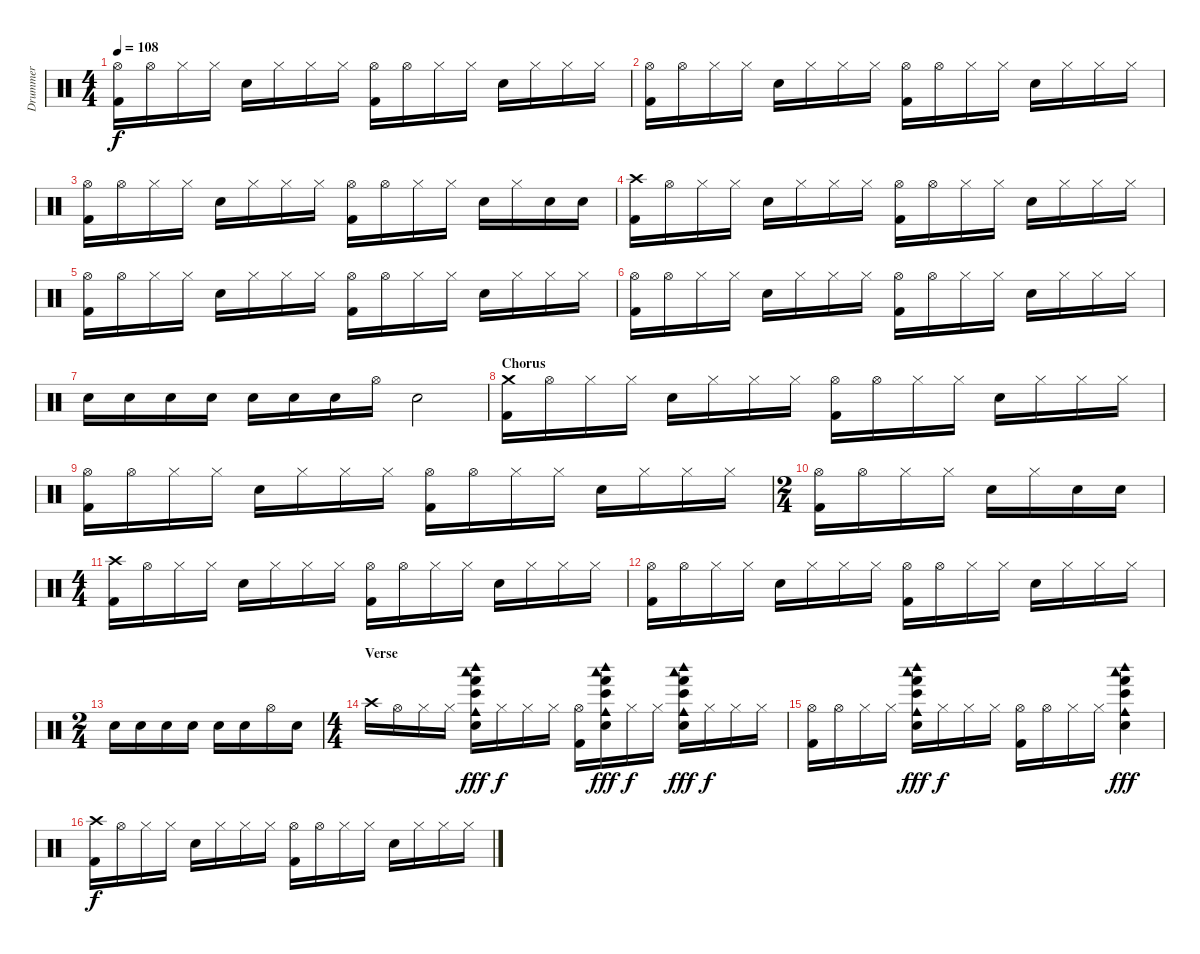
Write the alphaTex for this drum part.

\track ("Drummer" "Drummer") {instrument percussion}
\staff {score}
\articulation defaults
\ts (4 4)
\tempo 108
\clef neutral
\ks c
("Hi-Hat (open)" "Kick (hit) 2").16{dy f} "Hi-Hat (open)".16 "Hi-Hat (closed)".16 "Hi-Hat (closed)".16 "Electric Snare (hit)".16 "Hi-Hat (closed)".16 "Hi-Hat (closed)".16 "Hi-Hat (closed)".16 ("Hi-Hat (open)" "Kick (hit) 2").16 "Hi-Hat (open)".16 "Hi-Hat (closed)".16 "Hi-Hat (closed)".16 "Electric Snare (hit)".16 "Hi-Hat (closed)".16 "Hi-Hat (closed)".16 "Hi-Hat (closed)".16 |
("Hi-Hat (open)" "Kick (hit) 2").16 "Hi-Hat (open)".16 "Hi-Hat (closed)".16 "Hi-Hat (closed)".16 "Electric Snare (hit)".16 "Hi-Hat (closed)".16 "Hi-Hat (closed)".16 "Hi-Hat (closed)".16 ("Hi-Hat (open)" "Kick (hit) 2").16 "Hi-Hat (open)".16 "Hi-Hat (closed)".16 "Hi-Hat (closed)".16 "Electric Snare (hit)".16 "Hi-Hat (closed)".16 "Hi-Hat (closed)".16 "Hi-Hat (closed)".16 |
("Hi-Hat (open)" "Kick (hit) 2").16 "Hi-Hat (open)".16 "Hi-Hat (closed)".16 "Hi-Hat (closed)".16 "Electric Snare (hit)".16 "Hi-Hat (closed)".16 "Hi-Hat (closed)".16 "Hi-Hat (closed)".16 ("Hi-Hat (open)" "Kick (hit) 2").16 "Hi-Hat (open)".16 "Hi-Hat (closed)".16 "Hi-Hat (closed)".16 "Electric Snare (hit)".16 "Hi-Hat (closed)".16 "Electric Snare (hit)".16 "Electric Snare (hit)".16 |
("Crash high (hit)" "Kick (hit) 2").16 "Hi-Hat (open)".16 "Hi-Hat (closed)".16 "Hi-Hat (closed)".16 "Electric Snare (hit)".16 "Hi-Hat (closed)".16 "Hi-Hat (closed)".16 "Hi-Hat (closed)".16 ("Hi-Hat (open)" "Kick (hit) 2").16 "Hi-Hat (open)".16 "Hi-Hat (closed)".16 "Hi-Hat (closed)".16 "Electric Snare (hit)".16 "Hi-Hat (closed)".16 "Hi-Hat (closed)".16 "Hi-Hat (closed)".16 |
("Hi-Hat (open)" "Kick (hit) 2").16 "Hi-Hat (open)".16 "Hi-Hat (closed)".16 "Hi-Hat (closed)".16 "Electric Snare (hit)".16 "Hi-Hat (closed)".16 "Hi-Hat (closed)".16 "Hi-Hat (closed)".16 ("Hi-Hat (open)" "Kick (hit) 2").16 "Hi-Hat (open)".16 "Hi-Hat (closed)".16 "Hi-Hat (closed)".16 "Electric Snare (hit)".16 "Hi-Hat (closed)".16 "Hi-Hat (closed)".16 "Hi-Hat (closed)".16 |
("Hi-Hat (open)" "Kick (hit) 2").16 "Hi-Hat (open)".16 "Hi-Hat (closed)".16 "Hi-Hat (closed)".16 "Electric Snare (hit)".16 "Hi-Hat (closed)".16 "Hi-Hat (closed)".16 "Hi-Hat (closed)".16 ("Hi-Hat (open)" "Kick (hit) 2").16 "Hi-Hat (open)".16 "Hi-Hat (closed)".16 "Hi-Hat (closed)".16 "Electric Snare (hit)".16 "Hi-Hat (closed)".16 "Hi-Hat (closed)".16 "Hi-Hat (closed)".16 |
"Electric Snare (hit)".16 "Electric Snare (hit)".16 "Electric Snare (hit)".16 "Electric Snare (hit)".16 "Electric Snare (hit)".16 "Electric Snare (hit)".16 "Electric Snare (hit)".16 "Hi-Hat (open)".16 "Electric Snare (hit)".2 |
\section ("" "Chorus")
("Crash medium (hit)" "Kick (hit) 2").16 "Hi-Hat (open)".16 "Hi-Hat (closed)".16 "Hi-Hat (closed)".16 "Electric Snare (hit)".16 "Hi-Hat (closed)".16 "Hi-Hat (closed)".16 "Hi-Hat (closed)".16 ("Hi-Hat (open)" "Kick (hit) 2").16 "Hi-Hat (open)".16 "Hi-Hat (closed)".16 "Hi-Hat (closed)".16 "Electric Snare (hit)".16 "Hi-Hat (closed)".16 "Hi-Hat (closed)".16 "Hi-Hat (closed)".16 |
("Hi-Hat (open)" "Kick (hit) 2").16 "Hi-Hat (open)".16 "Hi-Hat (closed)".16 "Hi-Hat (closed)".16 "Electric Snare (hit)".16 "Hi-Hat (closed)".16 "Hi-Hat (closed)".16 "Hi-Hat (closed)".16 ("Hi-Hat (open)" "Kick (hit) 2").16 "Hi-Hat (open)".16 "Hi-Hat (closed)".16 "Hi-Hat (closed)".16 "Electric Snare (hit)".16 "Hi-Hat (closed)".16 "Hi-Hat (closed)".16 "Hi-Hat (closed)".16 |
\ts (2 4)
("Hi-Hat (open)" "Kick (hit) 2").16 "Hi-Hat (open)".16 "Hi-Hat (closed)".16 "Hi-Hat (closed)".16 "Electric Snare (hit)".16 "Hi-Hat (closed)".16 "Electric Snare (hit)".16 "Electric Snare (hit)".16 |
\ts (4 4)
("Crash high (hit)" "Kick (hit) 2").16 "Hi-Hat (open)".16 "Hi-Hat (closed)".16 "Hi-Hat (closed)".16 "Electric Snare (hit)".16 "Hi-Hat (closed)".16 "Hi-Hat (closed)".16 "Hi-Hat (closed)".16 ("Hi-Hat (open)" "Kick (hit) 2").16 "Hi-Hat (open)".16 "Hi-Hat (closed)".16 "Hi-Hat (closed)".16 "Electric Snare (hit)".16 "Hi-Hat (closed)".16 "Hi-Hat (closed)".16 "Hi-Hat (closed)".16 |
("Hi-Hat (open)" "Kick (hit) 2").16 "Hi-Hat (open)".16 "Hi-Hat (closed)".16 "Hi-Hat (closed)".16 "Electric Snare (hit)".16 "Hi-Hat (closed)".16 "Hi-Hat (closed)".16 "Hi-Hat (closed)".16 ("Hi-Hat (open)" "Kick (hit) 2").16 "Hi-Hat (open)".16 "Hi-Hat (closed)".16 "Hi-Hat (closed)".16 "Electric Snare (hit)".16 "Hi-Hat (closed)".16 "Hi-Hat (closed)".16 "Hi-Hat (closed)".16 |
\ts (2 4)
"Electric Snare (hit)".16 "Electric Snare (hit)".16 "Electric Snare (hit)".16 "Electric Snare (hit)".16 "Electric Snare (hit)".16 "Electric Snare (hit)".16 "Hi-Hat (open)".16 "Electric Snare (hit)".16 |
\ts (4 4)
\section ("" "Verse")
"Crash high (hit)".16 "Hi-Hat (open)".16 "Hi-Hat (closed)".16 "Hi-Hat (closed)".16 ("Woodblock low (hit)" "Woodblock high (hit)" "Cowbell medium (hit)" "Electric Snare (hit)" "Hand (hit)" "Bongo High (hit)").16{dy fff} "Hi-Hat (closed)".16{dy f} "Hi-Hat (closed)".16 "Hi-Hat (closed)".16 ("Hi-Hat (open)" "Kick (hit) 2").16 ("Woodblock low (hit)" "Woodblock high (hit)" "Cowbell medium (hit)" "Electric Snare (hit)" "Hand (hit)" "Bongo High (hit)").16{dy fff} "Hi-Hat (closed)".16{dy f} "Hi-Hat (closed)".16 ("Woodblock low (hit)" "Woodblock high (hit)" "Cowbell medium (hit)" "Electric Snare (hit)" "Hand (hit)" "Bongo High (hit)").16{dy fff} "Hi-Hat (closed)".16{dy f} "Hi-Hat (closed)".16 "Hi-Hat (closed)".16 |
("Hi-Hat (open)" "Kick (hit) 2").16 "Hi-Hat (open)".16 "Hi-Hat (closed)".16 "Hi-Hat (closed)".16 ("Woodblock low (hit)" "Woodblock high (hit)" "Cowbell medium (hit)" "Electric Snare (hit)" "Hand (hit)" "Bongo High (hit)").16{dy fff} "Hi-Hat (closed)".16{dy f} "Hi-Hat (closed)".16 "Hi-Hat (closed)".16 ("Hi-Hat (open)" "Kick (hit) 2").16 "Hi-Hat (open)".16 "Hi-Hat (closed)".16 "Hi-Hat (closed)".16 ("Woodblock low (hit)" "Woodblock high (hit)" "Cowbell medium (hit)" "Electric Snare (hit)" "Hand (hit)" "Bongo High (hit)").4{dy fff} |
("Crash high (hit)" "Kick (hit) 2").16{dy f} "Hi-Hat (open)".16 "Hi-Hat (closed)".16 "Hi-Hat (closed)".16 "Electric Snare (hit)".16 "Hi-Hat (closed)".16 "Hi-Hat (closed)".16 "Hi-Hat (closed)".16 ("Hi-Hat (open)" "Kick (hit) 2").16 "Hi-Hat (open)".16 "Hi-Hat (closed)".16 "Hi-Hat (closed)".16 "Electric Snare (hit)".16 "Hi-Hat (closed)".16 "Hi-Hat (closed)".16 "Hi-Hat (closed)".16
